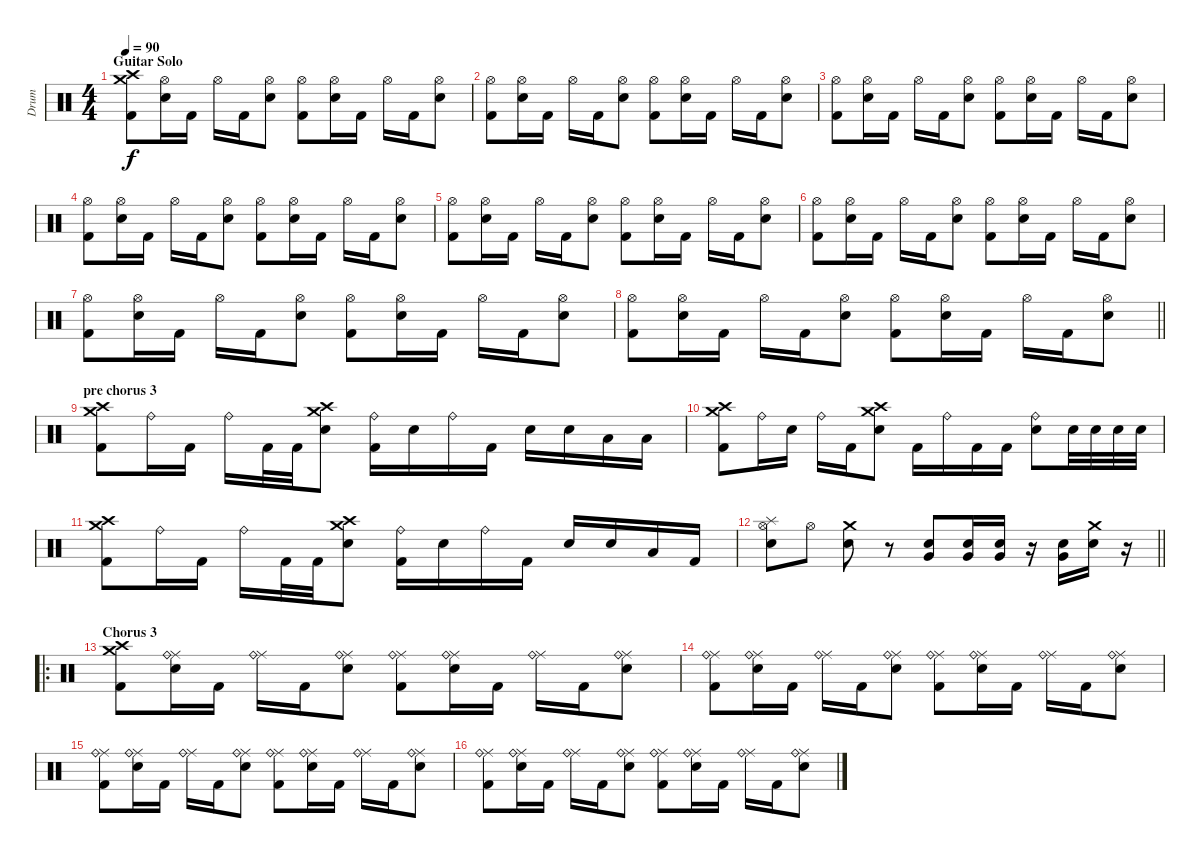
\track ("Drum" "Drum") {instrument percussion}
\staff {score}
\articulation defaults
\ts (4 4)
\section ("" "Guitar Solo")
\tempo 90
\clef neutral
\ks c
("Crash medium (hit)" "Crash high (hit)" "Kick (hit) 2").8{dy f} ("Hi-Hat (open)" "Snare (hit) 2").16 "Kick (hit) 2".16 "Hi-Hat (open)".16 "Kick (hit) 2".16 ("Hi-Hat (open)" "Snare (hit) 2").8 ("Hi-Hat (open)" "Kick (hit) 2").8 ("Hi-Hat (open)" "Snare (hit) 2").16 "Kick (hit) 2".16 "Hi-Hat (open)".16 "Kick (hit) 2".16 ("Hi-Hat (open)" "Snare (hit) 2").8 |
("Hi-Hat (open)" "Kick (hit) 2").8 ("Hi-Hat (open)" "Snare (hit) 2").16 "Kick (hit) 2".16 "Hi-Hat (open)".16 "Kick (hit) 2".16 ("Hi-Hat (open)" "Snare (hit) 2").8 ("Hi-Hat (open)" "Kick (hit) 2").8 ("Hi-Hat (open)" "Snare (hit) 2").16 "Kick (hit) 2".16 "Hi-Hat (open)".16 "Kick (hit) 2".16 ("Hi-Hat (open)" "Snare (hit) 2").8 |
("Hi-Hat (open)" "Kick (hit) 2").8 ("Hi-Hat (open)" "Snare (hit) 2").16 "Kick (hit) 2".16 "Hi-Hat (open)".16 "Kick (hit) 2".16 ("Hi-Hat (open)" "Snare (hit) 2").8 ("Hi-Hat (open)" "Kick (hit) 2").8 ("Hi-Hat (open)" "Snare (hit) 2").16 "Kick (hit) 2".16 "Hi-Hat (open)".16 "Kick (hit) 2".16 ("Hi-Hat (open)" "Snare (hit) 2").8 |
("Hi-Hat (open)" "Kick (hit) 2").8 ("Hi-Hat (open)" "Snare (hit) 2").16 "Kick (hit) 2".16 "Hi-Hat (open)".16 "Kick (hit) 2".16 ("Hi-Hat (open)" "Snare (hit) 2").8 ("Hi-Hat (open)" "Kick (hit) 2").8 ("Hi-Hat (open)" "Snare (hit) 2").16 "Kick (hit) 2".16 "Hi-Hat (open)".16 "Kick (hit) 2".16 ("Hi-Hat (open)" "Snare (hit) 2").8 |
("Hi-Hat (open)" "Kick (hit) 2").8 ("Hi-Hat (open)" "Snare (hit) 2").16 "Kick (hit) 2".16 "Hi-Hat (open)".16 "Kick (hit) 2".16 ("Hi-Hat (open)" "Snare (hit) 2").8 ("Hi-Hat (open)" "Kick (hit) 2").8 ("Hi-Hat (open)" "Snare (hit) 2").16 "Kick (hit) 2".16 "Hi-Hat (open)".16 "Kick (hit) 2".16 ("Hi-Hat (open)" "Snare (hit) 2").8 |
("Hi-Hat (open)" "Kick (hit) 2").8 ("Hi-Hat (open)" "Snare (hit) 2").16 "Kick (hit) 2".16 "Hi-Hat (open)".16 "Kick (hit) 2".16 ("Hi-Hat (open)" "Snare (hit) 2").8 ("Hi-Hat (open)" "Kick (hit) 2").8 ("Hi-Hat (open)" "Snare (hit) 2").16 "Kick (hit) 2".16 "Hi-Hat (open)".16 "Kick (hit) 2".16 ("Hi-Hat (open)" "Snare (hit) 2").8 |
("Hi-Hat (open)" "Kick (hit) 2").8 ("Hi-Hat (open)" "Snare (hit) 2").16 "Kick (hit) 2".16 "Hi-Hat (open)".16 "Kick (hit) 2".16 ("Hi-Hat (open)" "Snare (hit) 2").8 ("Hi-Hat (open)" "Kick (hit) 2").8 ("Hi-Hat (open)" "Snare (hit) 2").16 "Kick (hit) 2".16 "Hi-Hat (open)".16 "Kick (hit) 2".16 ("Hi-Hat (open)" "Snare (hit) 2").8 |
\barLineRight lightlight
("Hi-Hat (open)" "Kick (hit) 2").8 ("Hi-Hat (open)" "Snare (hit) 2").16 "Kick (hit) 2".16 "Hi-Hat (open)".16 "Kick (hit) 2".16 ("Hi-Hat (open)" "Snare (hit) 2").8 ("Hi-Hat (open)" "Kick (hit) 2").8 ("Hi-Hat (open)" "Snare (hit) 2").16 "Kick (hit) 2".16 "Hi-Hat (open)".16 "Kick (hit) 2".16 ("Hi-Hat (open)" "Snare (hit) 2").8 |
\section ("" "pre chorus 3 ")
("Crash medium (hit)" "Crash high (hit)" "Kick (hit) 2").8 "Ride (bell)".16 "Kick (hit) 2".16 "Ride (bell)".16 "Kick (hit) 2".32 "Kick (hit) 2".32 ("Crash medium (hit)" "Crash high (hit)" "Snare (hit) 2").8 ("Ride (bell)" "Kick (hit) 2").16 "Snare (hit) 2".16 "Ride (bell)".16 "Kick (hit) 2".16 "Snare (hit) 2".16 "Snare (hit) 2".16 "Low Tom (hit)".16 "Low Tom (hit)".16 |
("Crash high (hit)" "Crash medium (hit)" "Kick (hit) 2").8 "Ride (bell)".16 "Snare (hit) 2".16 "Ride (bell)".16 "Kick (hit) 2".16 ("Crash medium (hit)" "Crash high (hit)" "Snare (hit) 2").8 "Kick (hit) 2".16 "Ride (bell)".16 "Kick (hit) 2".16 "Kick (hit) 2".16 ("Ride (bell)" "Snare (hit) 2").8 "Snare (hit) 2".32 "Snare (hit) 2".32 "Snare (hit) 2".32 "Snare (hit) 2".32 |
("Crash high (hit)" "Crash medium (hit)" "Kick (hit) 2").8 "Ride (bell)".16 "Kick (hit) 2".16 "Ride (bell)".16 "Kick (hit) 2".32 "Kick (hit) 2".32 ("Crash medium (hit)" "Crash high (hit)" "Snare (hit) 2").8 ("Ride (bell)" "Kick (hit) 2").16 "Snare (hit) 2".16 "Ride (bell)".16 "Kick (hit) 2".16 "Snare (hit) 2".16 "Snare (hit) 2".16 "Low Tom (hit)".16 "Kick (hit) 2".16 |
\barLineRight lightlight
("Hi-Hat (open)" "Splash (hit)" "Snare (hit) 2").8 "Hi-Hat (open)".8 ("Crash medium (hit)" "Snare (hit) 2").8 r.8 ("Very Low Tom (hit)" "Snare (hit) 2").8 ("Very Low Tom (hit)" "Snare (hit) 2").16 ("Very Low Tom (hit)" "Snare (hit) 2").16 r.16 ("Very Low Tom (hit)" "Snare (hit) 2").16 ("Crash medium (hit)" "Snare (hit) 2").16 r.16 |
\ro
\section ("" "Chorus 3")
("Crash medium (hit)" "Crash high (hit)" "Kick (hit) 2").8 ("Ride (middle)" "Ride (bell)" "Snare (hit) 2").16 "Kick (hit) 2".16 ("Ride (middle)" "Ride (bell)").16 "Kick (hit) 2".16 ("Ride (middle)" "Ride (bell)" "Snare (hit) 2").8 ("Ride (middle)" "Ride (bell)" "Kick (hit) 2").8 ("Ride (middle)" "Ride (bell)" "Snare (hit) 2").16 "Kick (hit) 2".16 ("Ride (middle)" "Ride (bell)").16 "Kick (hit) 2".16 ("Ride (middle)" "Ride (bell)" "Snare (hit) 2").8 |
("Ride (middle)" "Ride (bell)" "Kick (hit) 2").8 ("Ride (middle)" "Ride (bell)" "Snare (hit) 2").16 "Kick (hit) 2".16 ("Ride (middle)" "Ride (bell)").16 "Kick (hit) 2".16 ("Ride (middle)" "Ride (bell)" "Snare (hit) 2").8 ("Ride (middle)" "Ride (bell)" "Kick (hit) 2").8 ("Ride (middle)" "Ride (bell)" "Snare (hit) 2").16 "Kick (hit) 2".16 ("Ride (middle)" "Ride (bell)").16 "Kick (hit) 2".16 ("Ride (middle)" "Ride (bell)" "Snare (hit) 2").8 |
("Ride (middle)" "Ride (bell)" "Kick (hit) 2").8 ("Ride (middle)" "Ride (bell)" "Snare (hit) 2").16 "Kick (hit) 2".16 ("Ride (middle)" "Ride (bell)").16 "Kick (hit) 2".16 ("Ride (middle)" "Ride (bell)" "Snare (hit) 2").8 ("Ride (middle)" "Ride (bell)" "Kick (hit) 2").8 ("Ride (middle)" "Ride (bell)" "Snare (hit) 2").16 "Kick (hit) 2".16 ("Ride (middle)" "Ride (bell)").16 "Kick (hit) 2".16 ("Ride (middle)" "Ride (bell)" "Snare (hit) 2").8 |
("Ride (middle)" "Ride (bell)" "Kick (hit) 2").8 ("Ride (middle)" "Ride (bell)" "Snare (hit) 2").16 "Kick (hit) 2".16 ("Ride (middle)" "Ride (bell)").16 "Kick (hit) 2".16 ("Ride (middle)" "Ride (bell)" "Snare (hit) 2").8 ("Ride (middle)" "Ride (bell)" "Kick (hit) 2").8 ("Ride (middle)" "Ride (bell)" "Snare (hit) 2").16 "Kick (hit) 2".16 ("Ride (middle)" "Ride (bell)").16 "Kick (hit) 2".16 ("Ride (middle)" "Ride (bell)" "Snare (hit) 2").8
